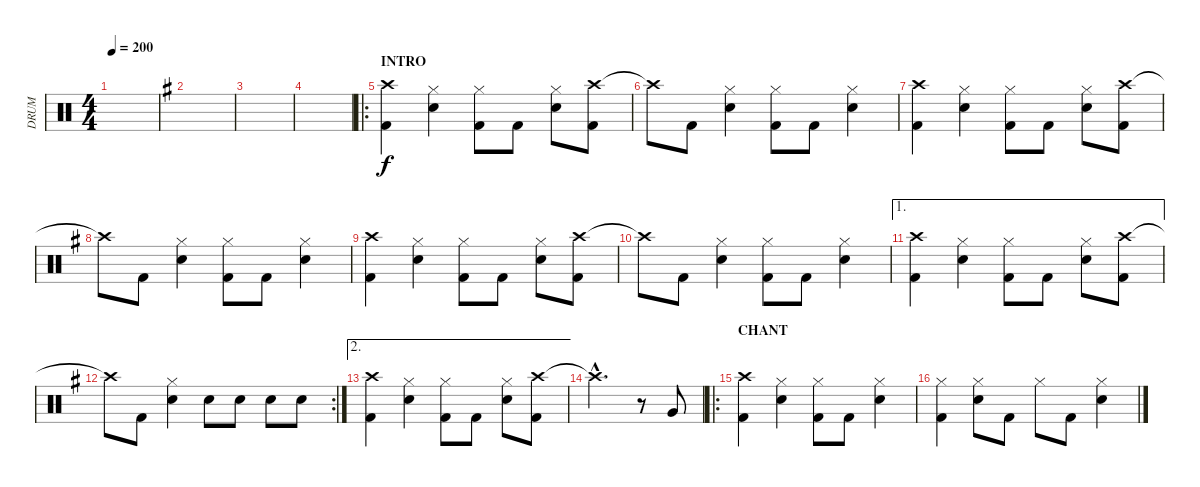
\track ("DRUM" "DRUM") {instrument percussion}
\staff {score}
\articulation defaults
\ts (4 4)
\tempo 200
\clef neutral
\ks c
|
\ks eminor
|
|
|
\ro
\section ("" "INTRO")
("Crash high (hit)" "Kick (hit) 2").4 ("Hi-Hat (closed)" "Snare (hit) 2").4 ("Hi-Hat (closed)" "Kick (hit) 2").8 "Kick (hit) 2".8 ("Hi-Hat (closed)" "Snare (hit) 2").8 ("Crash high (hit)" "Kick (hit) 2").8 |
"Crash high (hit)"{t}.8 "Kick (hit) 2".8 ("Hi-Hat (closed)" "Snare (hit) 2").4 ("Hi-Hat (closed)" "Kick (hit) 2").8 "Kick (hit) 2".8 ("Hi-Hat (closed)" "Snare (hit) 2").4 |
("Crash high (hit)" "Kick (hit) 2").4 ("Hi-Hat (closed)" "Snare (hit) 2").4 ("Hi-Hat (closed)" "Kick (hit) 2").8 "Kick (hit) 2".8 ("Hi-Hat (closed)" "Snare (hit) 2").8 ("Crash high (hit)" "Kick (hit) 2").8 |
"Crash high (hit)"{t}.8 "Kick (hit) 2".8 ("Hi-Hat (closed)" "Snare (hit) 2").4 ("Hi-Hat (closed)" "Kick (hit) 2").8 "Kick (hit) 2".8 ("Hi-Hat (closed)" "Snare (hit) 2").4 |
("Crash high (hit)" "Kick (hit) 2").4 ("Hi-Hat (closed)" "Snare (hit) 2").4 ("Hi-Hat (closed)" "Kick (hit) 2").8 "Kick (hit) 2".8 ("Hi-Hat (closed)" "Snare (hit) 2").8 ("Crash high (hit)" "Kick (hit) 2").8 |
"Crash high (hit)"{t}.8 "Kick (hit) 2".8 ("Hi-Hat (closed)" "Snare (hit) 2").4 ("Hi-Hat (closed)" "Kick (hit) 2").8 "Kick (hit) 2".8 ("Hi-Hat (closed)" "Snare (hit) 2").4 |
\ae 1
("Crash high (hit)" "Kick (hit) 2").4 ("Hi-Hat (closed)" "Snare (hit) 2").4 ("Hi-Hat (closed)" "Kick (hit) 2").8 "Kick (hit) 2".8 ("Hi-Hat (closed)" "Snare (hit) 2").8 ("Crash high (hit)" "Kick (hit) 2").8 |
\rc 2 "Crash high (hit)"{t}.8 "Kick (hit) 2".8
("Hi-Hat (closed)" "Snare (hit) 2").4 "Snare (hit) 2".8 "Snare (hit) 2".8 "Snare (hit) 2".8 "Snare (hit) 2".8 |
\ae 2
("Crash high (hit)" "Kick (hit) 2").4 ("Hi-Hat (closed)" "Snare (hit) 2").4 ("Hi-Hat (closed)" "Kick (hit) 2").8 "Kick (hit) 2".8 ("Hi-Hat (closed)" "Snare (hit) 2").8 ("Crash high (hit)" "Kick (hit) 2").8 |
"Crash high (hit)"{hac t}.2{d} r.8 "Very Low Tom (hit)".8 |
\ro
\section ("" "CHANT")
("Crash high (hit)" "Kick (hit) 2").4 ("Hi-Hat (closed)" "Snare (hit) 2").4 ("Hi-Hat (closed)" "Kick (hit) 2").8 "Kick (hit) 2".8 ("Hi-Hat (closed)" "Snare (hit) 2").4 |
("Hi-Hat (closed)" "Kick (hit) 2").4 ("Hi-Hat (closed)" "Snare (hit) 2").8 "Kick (hit) 2".8 "Hi-Hat (closed)".8 "Kick (hit) 2".8 ("Hi-Hat (closed)" "Snare (hit) 2").4
